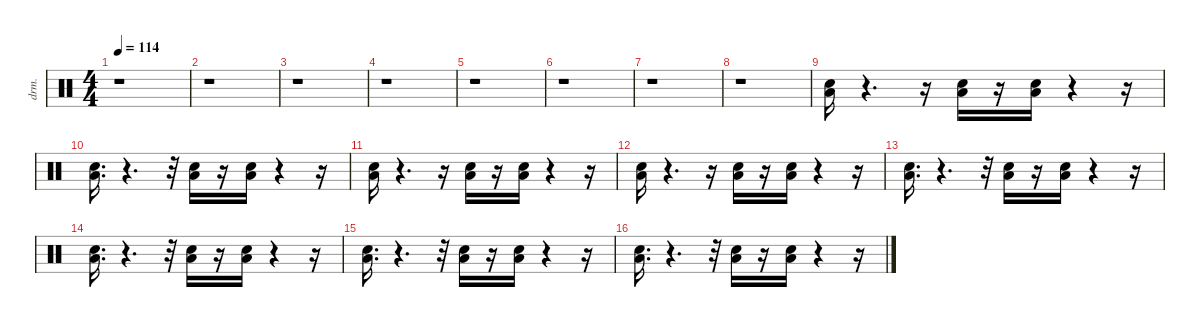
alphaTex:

\defaultSystemsLayout 4
\hideDynamics
\bracketExtendMode nobrackets
\otherSystemsTrackNameOrientation horizontal
\track ("Taiko drum" "drm.") {instrument percussion}
\staff {score}
\articulation defaults
\ts (4 4)
\tempo 114
\clef neutral
\ks c
r.1{dy fff} |
r.1 |
r.1 |
r.1 |
r.1 |
r.1 |
r.1 |
r.1 |
("Low Floor Tom (hit)" "Snare (hit) 2").16 r.4{d} r.16 ("Low Floor Tom (hit)" "Snare (hit) 2").16 r.16 ("Low Floor Tom (hit)" "Snare (hit) 2").16 r.4 r.16 |
("Low Floor Tom (hit)" "Snare (hit) 2").16{d} r.4{d} r.32 ("Low Floor Tom (hit)" "Snare (hit) 2").16 r.16 ("Low Floor Tom (hit)" "Snare (hit) 2").16 r.4 r.16 |
("Low Floor Tom (hit)" "Snare (hit) 2").16 r.4{d} r.16 ("Low Floor Tom (hit)" "Snare (hit) 2").16{dy ff} r.16 ("Low Floor Tom (hit)" "Snare (hit) 2").16{dy fff} r.4 r.16 |
("Low Floor Tom (hit)" "Snare (hit) 2").16 r.4{d} r.16 ("Low Floor Tom (hit)" "Snare (hit) 2").16 r.16 ("Low Floor Tom (hit)" "Snare (hit) 2").16 r.4 r.16 |
("Low Floor Tom (hit)" "Snare (hit) 2").16{d} r.4{d} r.32 ("Low Floor Tom (hit)" "Snare (hit) 2").16 r.16 ("Low Floor Tom (hit)" "Snare (hit) 2").16{dy ff} r.4 r.16 |
("Low Floor Tom (hit)" "Snare (hit) 2").16{d dy fff} r.4{d} r.32 ("Low Floor Tom (hit)" "Snare (hit) 2").16{dy ff} r.16 ("Low Floor Tom (hit)" "Snare (hit) 2").16{dy fff} r.4 r.16 |
("Low Floor Tom (hit)" "Snare (hit) 2").16{d} r.4{d} r.32 ("Low Floor Tom (hit)" "Snare (hit) 2").16 r.16 ("Low Floor Tom (hit)" "Snare (hit) 2").16 r.4 r.16 |
("Low Floor Tom (hit)" "Snare (hit) 2").16{d} r.4{d} r.32 ("Low Floor Tom (hit)" "Snare (hit) 2").16 r.16 ("Low Floor Tom (hit)" "Snare (hit) 2").16 r.4 r.16
